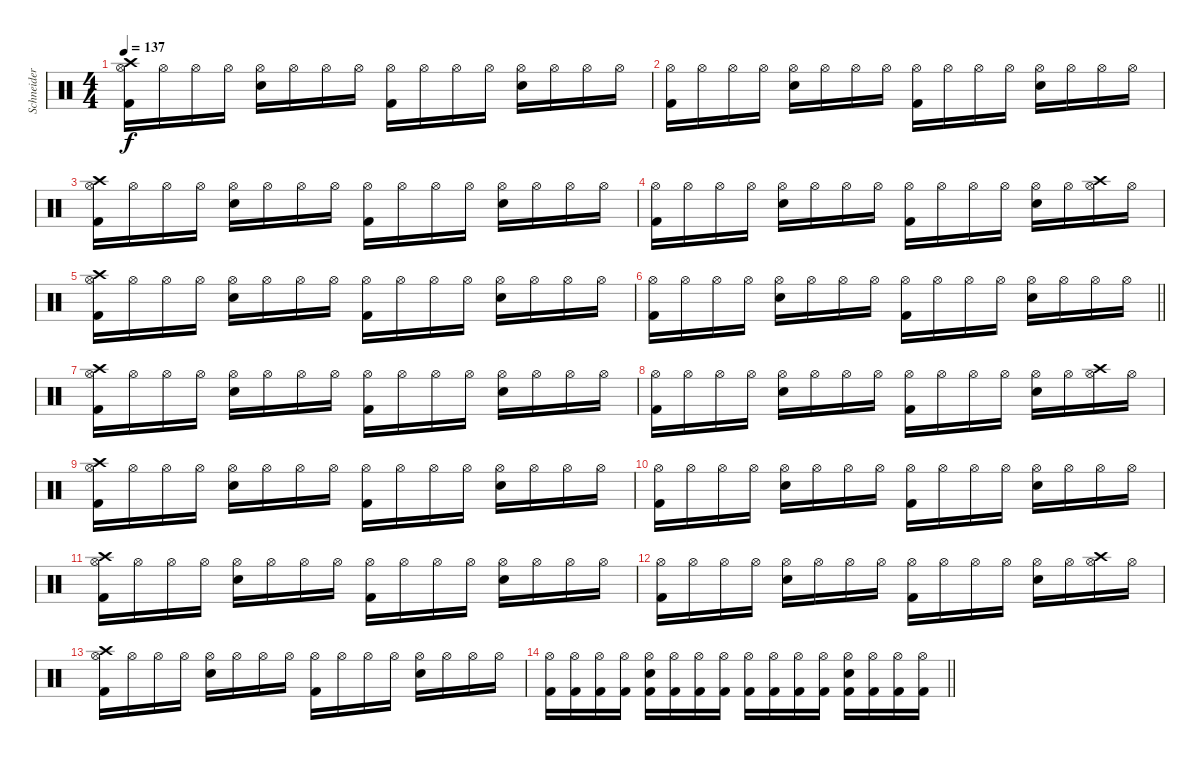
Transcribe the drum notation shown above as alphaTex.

\track ("Schneider" "Schneider") {instrument percussion}
\staff {score}
\articulation defaults
\ts (4 4)
\tempo 137
\clef neutral
\ks c
("Crash high (hit)" "Hi-Hat (open)" "Kick (hit) 2").16{dy f} "Hi-Hat (open)".16 "Hi-Hat (open)".16 "Hi-Hat (open)".16 ("Hi-Hat (open)" "Electric Snare (hit)").16 "Hi-Hat (open)".16 "Hi-Hat (open)".16 "Hi-Hat (open)".16 ("Hi-Hat (open)" "Kick (hit) 2").16 "Hi-Hat (open)".16 "Hi-Hat (open)".16 "Hi-Hat (open)".16 ("Hi-Hat (open)" "Electric Snare (hit)").16 "Hi-Hat (open)".16 "Hi-Hat (open)".16 "Hi-Hat (open)".16 |
("Hi-Hat (open)" "Kick (hit) 2").16 "Hi-Hat (open)".16 "Hi-Hat (open)".16 "Hi-Hat (open)".16 ("Hi-Hat (open)" "Electric Snare (hit)").16 "Hi-Hat (open)".16 "Hi-Hat (open)".16 "Hi-Hat (open)".16 ("Hi-Hat (open)" "Kick (hit) 2").16 "Hi-Hat (open)".16 "Hi-Hat (open)".16 "Hi-Hat (open)".16 ("Hi-Hat (open)" "Electric Snare (hit)").16 "Hi-Hat (open)".16 "Hi-Hat (open)".16 "Hi-Hat (open)".16 |
("Crash high (hit)" "Hi-Hat (open)" "Kick (hit) 2").16 "Hi-Hat (open)".16 "Hi-Hat (open)".16 "Hi-Hat (open)".16 ("Hi-Hat (open)" "Electric Snare (hit)").16 "Hi-Hat (open)".16 "Hi-Hat (open)".16 "Hi-Hat (open)".16 ("Hi-Hat (open)" "Kick (hit) 2").16 "Hi-Hat (open)".16 "Hi-Hat (open)".16 "Hi-Hat (open)".16 ("Hi-Hat (open)" "Electric Snare (hit)").16 "Hi-Hat (open)".16 "Hi-Hat (open)".16 "Hi-Hat (open)".16 |
("Hi-Hat (open)" "Kick (hit) 2").16 "Hi-Hat (open)".16 "Hi-Hat (open)".16 "Hi-Hat (open)".16 ("Hi-Hat (open)" "Electric Snare (hit)").16 "Hi-Hat (open)".16 "Hi-Hat (open)".16 "Hi-Hat (open)".16 ("Hi-Hat (open)" "Kick (hit) 2").16 "Hi-Hat (open)".16 "Hi-Hat (open)".16 "Hi-Hat (open)".16 ("Hi-Hat (open)" "Electric Snare (hit)").16 "Hi-Hat (open)".16 ("Crash high (hit)" "Hi-Hat (open)").16 "Hi-Hat (open)".16 |
("Crash high (hit)" "Hi-Hat (open)" "Kick (hit) 2").16 "Hi-Hat (open)".16 "Hi-Hat (open)".16 "Hi-Hat (open)".16 ("Hi-Hat (open)" "Electric Snare (hit)").16 "Hi-Hat (open)".16 "Hi-Hat (open)".16 "Hi-Hat (open)".16 ("Hi-Hat (open)" "Kick (hit) 2").16 "Hi-Hat (open)".16 "Hi-Hat (open)".16 "Hi-Hat (open)".16 ("Hi-Hat (open)" "Electric Snare (hit)").16 "Hi-Hat (open)".16 "Hi-Hat (open)".16 "Hi-Hat (open)".16 |
\barLineRight lightlight
("Hi-Hat (open)" "Kick (hit) 2").16 "Hi-Hat (open)".16 "Hi-Hat (open)".16 "Hi-Hat (open)".16 ("Hi-Hat (open)" "Electric Snare (hit)").16 "Hi-Hat (open)".16 "Hi-Hat (open)".16 "Hi-Hat (open)".16 ("Hi-Hat (open)" "Kick (hit) 2").16 "Hi-Hat (open)".16 "Hi-Hat (open)".16 "Hi-Hat (open)".16 ("Hi-Hat (open)" "Electric Snare (hit)").16 "Hi-Hat (open)".16 "Hi-Hat (open)".16 "Hi-Hat (open)".16 |
("Crash high (hit)" "Hi-Hat (open)" "Kick (hit) 2").16 "Hi-Hat (open)".16 "Hi-Hat (open)".16 "Hi-Hat (open)".16 ("Hi-Hat (open)" "Electric Snare (hit)").16 "Hi-Hat (open)".16 "Hi-Hat (open)".16 "Hi-Hat (open)".16 ("Hi-Hat (open)" "Kick (hit) 2").16 "Hi-Hat (open)".16 "Hi-Hat (open)".16 "Hi-Hat (open)".16 ("Hi-Hat (open)" "Electric Snare (hit)").16 "Hi-Hat (open)".16 "Hi-Hat (open)".16 "Hi-Hat (open)".16 |
("Hi-Hat (open)" "Kick (hit) 2").16 "Hi-Hat (open)".16 "Hi-Hat (open)".16 "Hi-Hat (open)".16 ("Hi-Hat (open)" "Electric Snare (hit)").16 "Hi-Hat (open)".16 "Hi-Hat (open)".16 "Hi-Hat (open)".16 ("Hi-Hat (open)" "Kick (hit) 2").16 "Hi-Hat (open)".16 "Hi-Hat (open)".16 "Hi-Hat (open)".16 ("Hi-Hat (open)" "Electric Snare (hit)").16 "Hi-Hat (open)".16 ("Crash high (hit)" "Hi-Hat (open)").16 "Hi-Hat (open)".16 |
("Crash high (hit)" "Hi-Hat (open)" "Kick (hit) 2").16 "Hi-Hat (open)".16 "Hi-Hat (open)".16 "Hi-Hat (open)".16 ("Hi-Hat (open)" "Electric Snare (hit)").16 "Hi-Hat (open)".16 "Hi-Hat (open)".16 "Hi-Hat (open)".16 ("Hi-Hat (open)" "Kick (hit) 2").16 "Hi-Hat (open)".16 "Hi-Hat (open)".16 "Hi-Hat (open)".16 ("Hi-Hat (open)" "Electric Snare (hit)").16 "Hi-Hat (open)".16 "Hi-Hat (open)".16 "Hi-Hat (open)".16 |
("Hi-Hat (open)" "Kick (hit) 2").16 "Hi-Hat (open)".16 "Hi-Hat (open)".16 "Hi-Hat (open)".16 ("Hi-Hat (open)" "Electric Snare (hit)").16 "Hi-Hat (open)".16 "Hi-Hat (open)".16 "Hi-Hat (open)".16 ("Hi-Hat (open)" "Kick (hit) 2").16 "Hi-Hat (open)".16 "Hi-Hat (open)".16 "Hi-Hat (open)".16 ("Hi-Hat (open)" "Electric Snare (hit)").16 "Hi-Hat (open)".16 "Hi-Hat (open)".16 "Hi-Hat (open)".16 |
("Crash high (hit)" "Hi-Hat (open)" "Kick (hit) 2").16 "Hi-Hat (open)".16 "Hi-Hat (open)".16 "Hi-Hat (open)".16 ("Hi-Hat (open)" "Electric Snare (hit)").16 "Hi-Hat (open)".16 "Hi-Hat (open)".16 "Hi-Hat (open)".16 ("Hi-Hat (open)" "Kick (hit) 2").16 "Hi-Hat (open)".16 "Hi-Hat (open)".16 "Hi-Hat (open)".16 ("Hi-Hat (open)" "Electric Snare (hit)").16 "Hi-Hat (open)".16 "Hi-Hat (open)".16 "Hi-Hat (open)".16 |
("Hi-Hat (open)" "Kick (hit) 2").16 "Hi-Hat (open)".16 "Hi-Hat (open)".16 "Hi-Hat (open)".16 ("Hi-Hat (open)" "Electric Snare (hit)").16 "Hi-Hat (open)".16 "Hi-Hat (open)".16 "Hi-Hat (open)".16 ("Hi-Hat (open)" "Kick (hit) 2").16 "Hi-Hat (open)".16 "Hi-Hat (open)".16 "Hi-Hat (open)".16 ("Hi-Hat (open)" "Electric Snare (hit)").16 "Hi-Hat (open)".16 ("Crash high (hit)" "Hi-Hat (open)").16 "Hi-Hat (open)".16 |
("Crash high (hit)" "Hi-Hat (open)" "Kick (hit) 2").16 "Hi-Hat (open)".16 "Hi-Hat (open)".16 "Hi-Hat (open)".16 ("Hi-Hat (open)" "Electric Snare (hit)").16 "Hi-Hat (open)".16 "Hi-Hat (open)".16 "Hi-Hat (open)".16 ("Hi-Hat (open)" "Kick (hit) 2").16 "Hi-Hat (open)".16 "Hi-Hat (open)".16 "Hi-Hat (open)".16 ("Hi-Hat (open)" "Electric Snare (hit)").16 "Hi-Hat (open)".16 "Hi-Hat (open)".16 "Hi-Hat (open)".16 |
\barLineRight lightlight
("Hi-Hat (open)" "Kick (hit) 2").16 ("Hi-Hat (open)" "Kick (hit) 2").16 ("Hi-Hat (open)" "Kick (hit) 2").16 ("Hi-Hat (open)" "Kick (hit) 2").16 ("Hi-Hat (open)" "Electric Snare (hit)" "Kick (hit) 2").16 ("Hi-Hat (open)" "Kick (hit) 2").16 ("Hi-Hat (open)" "Kick (hit) 2").16 ("Hi-Hat (open)" "Kick (hit) 2").16 ("Hi-Hat (open)" "Kick (hit) 2").16 ("Hi-Hat (open)" "Kick (hit) 2").16 ("Hi-Hat (open)" "Kick (hit) 2").16 ("Hi-Hat (open)" "Kick (hit) 2").16 ("Hi-Hat (open)" "Electric Snare (hit)" "Kick (hit) 2").16 ("Hi-Hat (open)" "Kick (hit) 2").16 ("Hi-Hat (open)" "Kick (hit) 2").16 ("Hi-Hat (open)" "Kick (hit) 2").16
